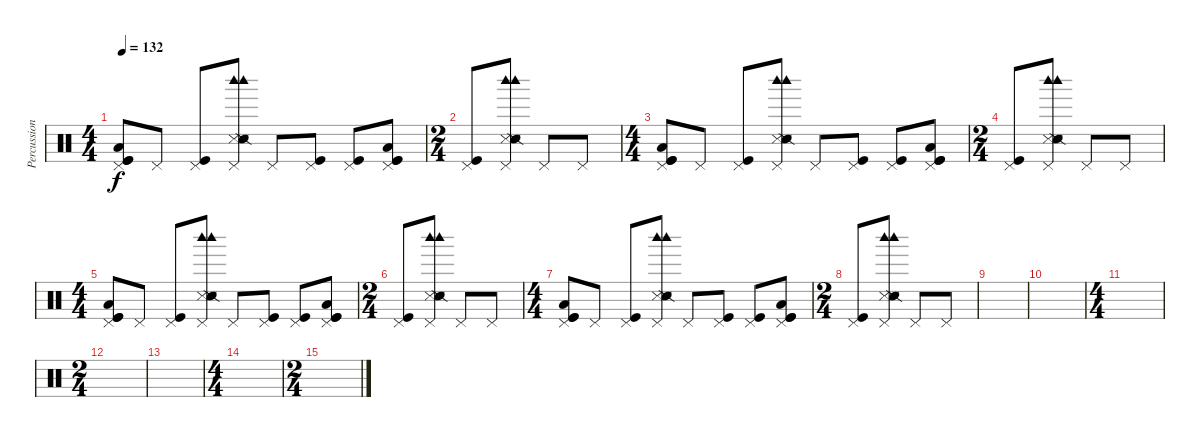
\track ("Percussions" "Percussion") {instrument percussion}
\staff {score}
\articulation defaults
\ts (4 4)
\tempo 132
\clef neutral
\ks c
("Pedal Hi-Hat (hit)" "Low Floor Tom (hit)" "Kick (hit)" "Kick (hit)").8{dy f} "Pedal Hi-Hat (hit)".8 ("Pedal Hi-Hat (hit)" "Kick (hit)").8 ("Pedal Hi-Hat (hit)" "Woodblock high (hit)" "Metronome (hit)" "Snare (side stick) 3" "Snare (side stick) 2" "Woodblock high (hit)").8 "Pedal Hi-Hat (hit)".8 ("Pedal Hi-Hat (hit)" "Kick (hit)").8 ("Pedal Hi-Hat (hit)" "Kick (hit)").8 ("Pedal Hi-Hat (hit)" "Low Floor Tom (hit)" "Kick (hit)" "Kick (hit)").8 |
\ts (2 4)
("Pedal Hi-Hat (hit)" "Kick (hit)").8 ("Pedal Hi-Hat (hit)" "Woodblock high (hit)" "Metronome (hit)" "Snare (side stick) 3" "Snare (side stick) 2" "Woodblock high (hit)").8 "Pedal Hi-Hat (hit)".8 "Pedal Hi-Hat (hit)".8 |
\ts (4 4)
("Pedal Hi-Hat (hit)" "Low Floor Tom (hit)" "Kick (hit)" "Kick (hit)").8 "Pedal Hi-Hat (hit)".8 ("Pedal Hi-Hat (hit)" "Kick (hit)").8 ("Pedal Hi-Hat (hit)" "Woodblock high (hit)" "Metronome (hit)" "Snare (side stick) 3" "Snare (side stick) 2" "Woodblock high (hit)").8 "Pedal Hi-Hat (hit)".8 ("Pedal Hi-Hat (hit)" "Kick (hit)").8 ("Pedal Hi-Hat (hit)" "Kick (hit)").8 ("Pedal Hi-Hat (hit)" "Low Floor Tom (hit)" "Kick (hit)" "Kick (hit)").8 |
\ts (2 4)
("Pedal Hi-Hat (hit)" "Kick (hit)").8 ("Pedal Hi-Hat (hit)" "Woodblock high (hit)" "Metronome (hit)" "Snare (side stick) 3" "Snare (side stick) 2" "Woodblock high (hit)").8 "Pedal Hi-Hat (hit)".8 "Pedal Hi-Hat (hit)".8 |
\ts (4 4)
("Pedal Hi-Hat (hit)" "Low Floor Tom (hit)" "Kick (hit)" "Kick (hit)").8 "Pedal Hi-Hat (hit)".8 ("Pedal Hi-Hat (hit)" "Kick (hit)").8 ("Pedal Hi-Hat (hit)" "Woodblock high (hit)" "Metronome (hit)" "Snare (side stick) 3" "Snare (side stick) 2" "Woodblock high (hit)").8 "Pedal Hi-Hat (hit)".8 ("Pedal Hi-Hat (hit)" "Kick (hit)").8 ("Pedal Hi-Hat (hit)" "Kick (hit)").8 ("Pedal Hi-Hat (hit)" "Low Floor Tom (hit)" "Kick (hit)" "Kick (hit)").8 |
\ts (2 4)
("Pedal Hi-Hat (hit)" "Kick (hit)").8 ("Pedal Hi-Hat (hit)" "Woodblock high (hit)" "Metronome (hit)" "Snare (side stick) 3" "Snare (side stick) 2" "Woodblock high (hit)").8 "Pedal Hi-Hat (hit)".8 "Pedal Hi-Hat (hit)".8 |
\ts (4 4)
("Pedal Hi-Hat (hit)" "Low Floor Tom (hit)" "Kick (hit)" "Kick (hit)").8 "Pedal Hi-Hat (hit)".8 ("Pedal Hi-Hat (hit)" "Kick (hit)").8 ("Pedal Hi-Hat (hit)" "Woodblock high (hit)" "Metronome (hit)" "Snare (side stick) 3" "Snare (side stick) 2" "Woodblock high (hit)").8 "Pedal Hi-Hat (hit)".8 ("Pedal Hi-Hat (hit)" "Kick (hit)").8 ("Pedal Hi-Hat (hit)" "Kick (hit)").8 ("Pedal Hi-Hat (hit)" "Low Floor Tom (hit)" "Kick (hit)" "Kick (hit)").8 |
\ts (2 4)
("Pedal Hi-Hat (hit)" "Kick (hit)").8 ("Pedal Hi-Hat (hit)" "Woodblock high (hit)" "Metronome (hit)" "Snare (side stick) 3" "Snare (side stick) 2" "Woodblock high (hit)").8 "Pedal Hi-Hat (hit)".8 "Pedal Hi-Hat (hit)".8 |
|
|
\ts (4 4)
|
\ts (2 4)
|
|
\ts (4 4)
|
\ts (2 4)
